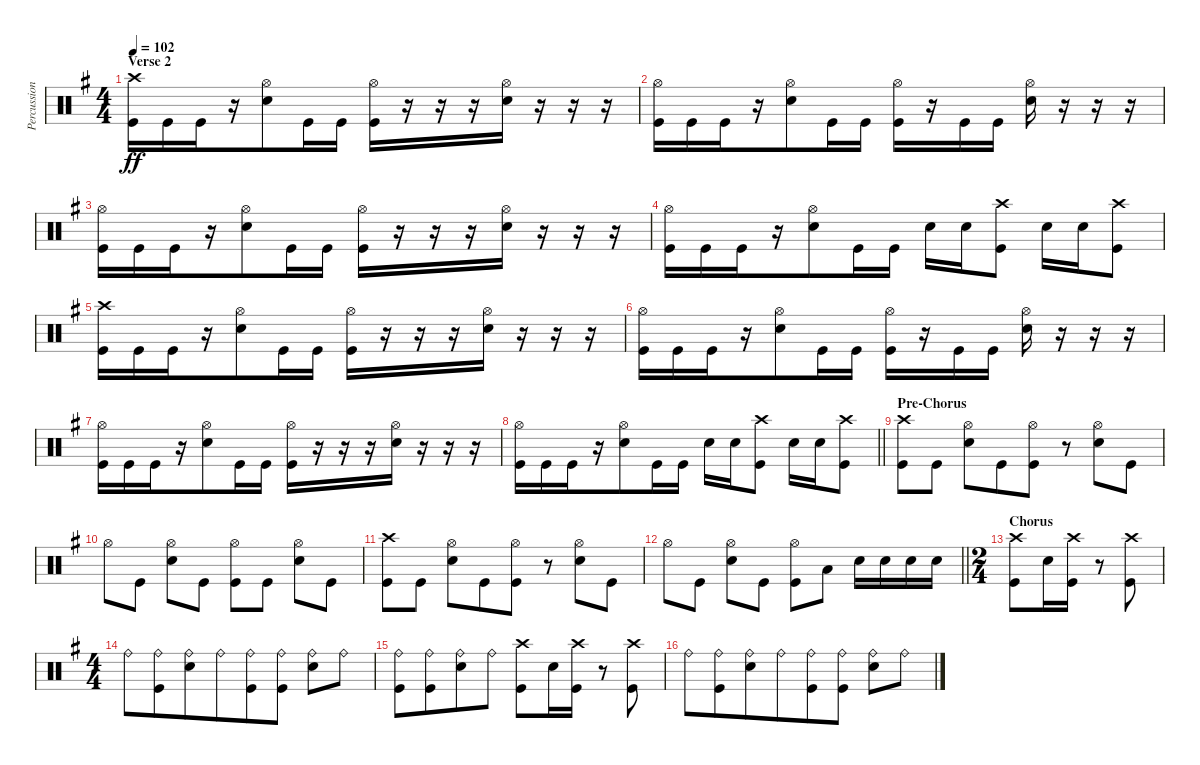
\track ("Percussion" "Percussion") {instrument percussion}
\staff {score}
\articulation defaults
\ts (4 4)
\section ("" "Verse 2")
\tempo 102
\clef neutral
\ks g
("Kick (hit)" "Crash high (hit)").16{dy ff beam merge} "Kick (hit)".16 "Kick (hit)".16{beam merge} r.16 ("Electric Snare (hit)" "Hi-Hat (open)").8 "Kick (hit)".16{beam merge} "Kick (hit)".16 ("Kick (hit)" "Hi-Hat (open)").16{beam merge} r.16 r.16{beam merge} r.16 ("Electric Snare (hit)" "Hi-Hat (open)").16 r.16{beam merge} r.16{beam merge} r.16 |
("Kick (hit)" "Hi-Hat (open)").16{beam merge} "Kick (hit)".16 "Kick (hit)".16{beam merge} r.16 ("Electric Snare (hit)" "Hi-Hat (open)").8 "Kick (hit)".16{beam merge} "Kick (hit)".16 ("Kick (hit)" "Hi-Hat (open)").16{beam merge} r.16 "Kick (hit)".16{beam merge} "Kick (hit)".16 ("Electric Snare (hit)" "Hi-Hat (open)").16 r.16{beam merge} r.16{beam merge} r.16 |
("Kick (hit)" "Hi-Hat (open)").16{beam merge} "Kick (hit)".16 "Kick (hit)".16{beam merge} r.16 ("Electric Snare (hit)" "Hi-Hat (open)").8 "Kick (hit)".16{beam merge} "Kick (hit)".16 ("Kick (hit)" "Hi-Hat (open)").16{beam merge} r.16 r.16{beam merge} r.16 ("Electric Snare (hit)" "Hi-Hat (open)").16 r.16{beam merge} r.16{beam merge} r.16 |
("Kick (hit)" "Hi-Hat (open)").16{beam merge} "Kick (hit)".16 "Kick (hit)".16{beam merge} r.16 ("Electric Snare (hit)" "Hi-Hat (open)").8 "Kick (hit)".16{beam merge} "Kick (hit)".16 "Electric Snare (hit)".16 "Electric Snare (hit)".16 ("Kick (hit)" "Crash high (hit)").8 "Electric Snare (hit)".16 "Electric Snare (hit)".16 ("Kick (hit)" "Crash high (hit)").8 |
("Kick (hit)" "Crash high (hit)").16{beam merge} "Kick (hit)".16 "Kick (hit)".16{beam merge} r.16 ("Electric Snare (hit)" "Hi-Hat (open)").8 "Kick (hit)".16{beam merge} "Kick (hit)".16 ("Kick (hit)" "Hi-Hat (open)").16{beam merge} r.16 r.16{beam merge} r.16 ("Electric Snare (hit)" "Hi-Hat (open)").16 r.16{beam merge} r.16{beam merge} r.16 |
("Kick (hit)" "Hi-Hat (open)").16{beam merge} "Kick (hit)".16 "Kick (hit)".16{beam merge} r.16 ("Electric Snare (hit)" "Hi-Hat (open)").8 "Kick (hit)".16{beam merge} "Kick (hit)".16 ("Kick (hit)" "Hi-Hat (open)").16{beam merge} r.16 "Kick (hit)".16{beam merge} "Kick (hit)".16 ("Electric Snare (hit)" "Hi-Hat (open)").16 r.16{beam merge} r.16{beam merge} r.16 |
("Kick (hit)" "Hi-Hat (open)").16{beam merge} "Kick (hit)".16 "Kick (hit)".16{beam merge} r.16 ("Electric Snare (hit)" "Hi-Hat (open)").8 "Kick (hit)".16{beam merge} "Kick (hit)".16 ("Kick (hit)" "Hi-Hat (open)").16{beam merge} r.16 r.16{beam merge} r.16 ("Electric Snare (hit)" "Hi-Hat (open)").16 r.16{beam merge} r.16{beam merge} r.16 |
\barLineRight lightlight
("Kick (hit)" "Hi-Hat (open)").16{beam merge} "Kick (hit)".16 "Kick (hit)".16{beam merge} r.16 ("Electric Snare (hit)" "Hi-Hat (open)").8 "Kick (hit)".16{beam merge} "Kick (hit)".16 "Electric Snare (hit)".16 "Electric Snare (hit)".16 ("Kick (hit)" "Crash high (hit)").8 "Electric Snare (hit)".16 "Electric Snare (hit)".16 ("Kick (hit)" "Crash high (hit)").8 |
\section ("" "Pre-Chorus")
("Kick (hit)" "Crash high (hit)").8 "Kick (hit)".8 ("Electric Snare (hit)" "Hi-Hat (open)").8{beam merge} "Kick (hit)".8{beam merge} ("Kick (hit)" "Hi-Hat (open)").8 r.8 ("Electric Snare (hit)" "Hi-Hat (open)").8{beam merge} "Kick (hit)".8 |
"Hi-Hat (open)".8{beam merge} "Kick (hit)".8 ("Electric Snare (hit)" "Hi-Hat (open)").8 "Kick (hit)".8 ("Kick (hit)" "Hi-Hat (open)").8{beam merge} "Kick (hit)".8 ("Hi-Hat (open)" "Electric Snare (hit)").8 "Kick (hit)".8 |
("Kick (hit)" "Crash high (hit)").8 "Kick (hit)".8 ("Electric Snare (hit)" "Hi-Hat (open)").8{beam merge} "Kick (hit)".8{beam merge} ("Kick (hit)" "Hi-Hat (open)").8 r.8 ("Electric Snare (hit)" "Hi-Hat (open)").8{beam merge} "Kick (hit)".8 |
\barLineRight lightlight "Hi-Hat (open)".8{beam merge} "Kick (hit)".8
("Electric Snare (hit)" "Hi-Hat (open)").8 "Kick (hit)".8 ("Kick (hit)" "Hi-Hat (open)").8{beam merge} "Low Tom (hit)".8 "Electric Snare (hit)".16 "Electric Snare (hit)".16 "Electric Snare (hit)".16{beam merge} "Electric Snare (hit)".16 |
\ts (2 4)
\section ("" "Chorus")
("Kick (hit)" "Crash high (hit)").8{beam merge} "Electric Snare (hit)".16{beam merge} ("Kick (hit)" "Crash high (hit)").16 r.8 ("Kick (hit)" "Crash high (hit)").8 |
\ts (4 4)
"Ride (bell)".8 ("Ride (bell)" "Kick (hit)").8{beam merge} ("Ride (bell)" "Electric Snare (hit)").8{beam merge} "Ride (bell)".8{beam merge} ("Ride (bell)" "Kick (hit)").8{beam merge} ("Ride (bell)" "Kick (hit)").8 ("Ride (bell)" "Electric Snare (hit)").8{beam merge} "Ride (bell)".8 |
("Ride (bell)" "Kick (hit)").8 ("Ride (bell)" "Kick (hit)").8{beam merge} ("Ride (bell)" "Electric Snare (hit)").8{beam merge} "Ride (bell)".8 ("Kick (hit)" "Crash high (hit)").8{beam merge} "Electric Snare (hit)".16{beam merge} ("Kick (hit)" "Crash high (hit)").16 r.8 ("Kick (hit)" "Crash high (hit)").8 |
"Ride (bell)".8 ("Ride (bell)" "Kick (hit)").8{beam merge} ("Ride (bell)" "Electric Snare (hit)").8{beam merge} "Ride (bell)".8{beam merge} ("Ride (bell)" "Kick (hit)").8{beam merge} ("Ride (bell)" "Kick (hit)").8 ("Ride (bell)" "Electric Snare (hit)").8{beam merge} "Ride (bell)".8
